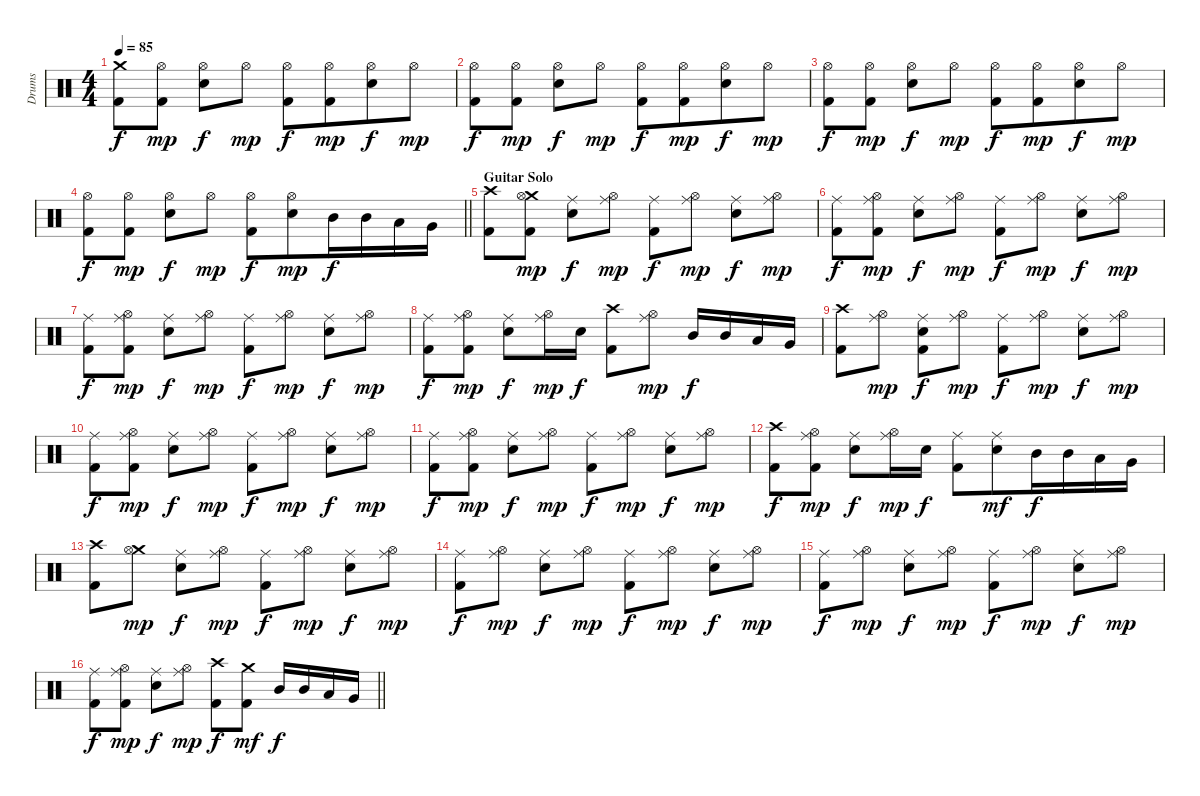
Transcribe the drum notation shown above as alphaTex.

\track ("Drums" "Drums") {instrument percussion}
\staff {score}
\articulation defaults
\ts (4 4)
\tempo 85
\clef neutral
\ks c
("Crash medium (hit)" "Kick (hit) 2").8{dy f beam merge} ("Hi-Hat (open)" "Kick (hit) 2").8{dy mp} ("Hi-Hat (open)" "Snare (hit) 2").8{dy f beam merge} "Hi-Hat (open)".8{dy mp} ("Hi-Hat (open)" "Kick (hit) 2").8{dy f beam merge} ("Hi-Hat (open)" "Kick (hit) 2").8{dy mp beam merge} ("Hi-Hat (open)" "Snare (hit) 2").8{dy f} "Hi-Hat (open)".8{dy mp} |
("Hi-Hat (open)" "Kick (hit) 2").8{dy f beam merge} ("Hi-Hat (open)" "Kick (hit) 2").8{dy mp} ("Hi-Hat (open)" "Snare (hit) 2").8{dy f beam merge} "Hi-Hat (open)".8{dy mp} ("Hi-Hat (open)" "Kick (hit) 2").8{dy f beam merge} ("Hi-Hat (open)" "Kick (hit) 2").8{dy mp beam merge} ("Hi-Hat (open)" "Snare (hit) 2").8{dy f} "Hi-Hat (open)".8{dy mp} |
("Hi-Hat (open)" "Kick (hit) 2").8{dy f beam merge} ("Hi-Hat (open)" "Kick (hit) 2").8{dy mp} ("Hi-Hat (open)" "Snare (hit) 2").8{dy f beam merge} "Hi-Hat (open)".8{dy mp} ("Hi-Hat (open)" "Kick (hit) 2").8{dy f beam merge} ("Hi-Hat (open)" "Kick (hit) 2").8{dy mp beam merge} ("Hi-Hat (open)" "Snare (hit) 2").8{dy f} "Hi-Hat (open)".8{dy mp} |
\barLineRight lightlight
("Hi-Hat (open)" "Kick (hit) 2").8{dy f beam merge} ("Hi-Hat (open)" "Kick (hit) 2").8{dy mp} ("Hi-Hat (open)" "Snare (hit) 2").8{dy f beam merge} "Hi-Hat (open)".8{dy mp} ("Hi-Hat (open)" "Kick (hit) 2").8{dy f beam merge} ("Hi-Hat (open)" "Snare (hit) 2").8{dy mp beam merge} "Mid Tom (hit)".16{dy f} "Mid Tom (hit)".16 "Low Tom (hit)".16 "Very Low Tom (hit)".16 |
\section ("" "Guitar Solo")
("Crash high (hit)" "Kick (hit) 2").8 ("Crash medium (hit)" "Hi-Hat (open)" "Kick (hit) 2").8{dy mp} ("Ride (middle)" "Snare (hit) 2").8{dy f} ("Ride (middle)" "Hi-Hat (open)").8{dy mp} ("Ride (middle)" "Kick (hit) 2").8{dy f} ("Ride (middle)" "Hi-Hat (open)").8{dy mp} ("Ride (middle)" "Snare (hit) 2").8{dy f} ("Ride (middle)" "Hi-Hat (open)").8{dy mp} |
("Ride (middle)" "Kick (hit) 2").8{dy f} ("Ride (middle)" "Hi-Hat (open)" "Kick (hit) 2").8{dy mp} ("Ride (middle)" "Snare (hit) 2").8{dy f} ("Ride (middle)" "Hi-Hat (open)").8{dy mp} ("Ride (middle)" "Kick (hit) 2").8{dy f} ("Ride (middle)" "Hi-Hat (open)").8{dy mp} ("Ride (middle)" "Snare (hit) 2").8{dy f} ("Ride (middle)" "Hi-Hat (open)").8{dy mp} |
("Ride (middle)" "Kick (hit) 2").8{dy f} ("Ride (middle)" "Hi-Hat (open)" "Kick (hit) 2").8{dy mp} ("Ride (middle)" "Snare (hit) 2").8{dy f} ("Ride (middle)" "Hi-Hat (open)").8{dy mp} ("Ride (middle)" "Kick (hit) 2").8{dy f} ("Ride (middle)" "Hi-Hat (open)").8{dy mp} ("Ride (middle)" "Snare (hit) 2").8{dy f} ("Ride (middle)" "Hi-Hat (open)").8{dy mp} |
("Ride (middle)" "Kick (hit) 2").8{dy f} ("Ride (middle)" "Hi-Hat (open)" "Kick (hit) 2").8{dy mp} ("Ride (middle)" "Snare (hit) 2").8{dy f} ("Ride (middle)" "Hi-Hat (open)").16{dy mp} "Snare (hit) 2".16{dy f} ("Crash high (hit)" "Kick (hit) 2").8 ("Ride (middle)" "Hi-Hat (open)").8{dy mp} "Mid Tom (hit)".16{dy f} "Mid Tom (hit)".16{beam merge} "Low Tom (hit)".16{beam merge} "Very Low Tom (hit)".16 |
("Crash high (hit)" "Kick (hit) 2").8 ("Ride (middle)" "Hi-Hat (open)").8{dy mp} ("Ride (middle)" "Snare (hit) 2" "Kick (hit) 2").8{dy f} ("Ride (middle)" "Hi-Hat (open)").8{dy mp} ("Ride (middle)" "Kick (hit) 2").8{dy f} ("Ride (middle)" "Hi-Hat (open)").8{dy mp} ("Ride (middle)" "Snare (hit) 2").8{dy f} ("Ride (middle)" "Hi-Hat (open)").8{dy mp} |
("Ride (middle)" "Kick (hit) 2").8{dy f} ("Ride (middle)" "Hi-Hat (open)" "Kick (hit) 2").8{dy mp} ("Ride (middle)" "Snare (hit) 2").8{dy f} ("Ride (middle)" "Hi-Hat (open)").8{dy mp} ("Ride (middle)" "Kick (hit) 2").8{dy f} ("Ride (middle)" "Hi-Hat (open)").8{dy mp} ("Ride (middle)" "Snare (hit) 2").8{dy f} ("Ride (middle)" "Hi-Hat (open)").8{dy mp} |
("Ride (middle)" "Kick (hit) 2").8{dy f} ("Ride (middle)" "Hi-Hat (open)" "Kick (hit) 2").8{dy mp} ("Ride (middle)" "Snare (hit) 2").8{dy f} ("Ride (middle)" "Hi-Hat (open)").8{dy mp} ("Ride (middle)" "Kick (hit) 2").8{dy f} ("Ride (middle)" "Hi-Hat (open)").8{dy mp} ("Ride (middle)" "Snare (hit) 2").8{dy f} ("Ride (middle)" "Hi-Hat (open)").8{dy mp} |
("Crash high (hit)" "Kick (hit) 2").8{dy f} ("Ride (middle)" "Hi-Hat (open)" "Kick (hit) 2").8{dy mp} ("Ride (middle)" "Snare (hit) 2").8{dy f} ("Ride (middle)" "Hi-Hat (open)").16{dy mp} "Snare (hit) 2".16{dy f} ("Ride (middle)" "Kick (hit) 2").8 ("Ride (middle)" "Snare (hit) 2").8{dy mf beam merge} "Mid Tom (hit)".16{dy f beam merge} "Mid Tom (hit)".16{beam merge} "Low Tom (hit)".16 "Very Low Tom (hit)".16 |
("Crash high (hit)" "Kick (hit) 2").8 ("Crash medium (hit)" "Hi-Hat (open)").8{dy mp} ("Ride (middle)" "Snare (hit) 2").8{dy f} ("Ride (middle)" "Hi-Hat (open)").8{dy mp} ("Ride (middle)" "Kick (hit) 2").8{dy f} ("Ride (middle)" "Hi-Hat (open)").8{dy mp} ("Ride (middle)" "Snare (hit) 2").8{dy f} ("Ride (middle)" "Hi-Hat (open)").8{dy mp} |
("Ride (middle)" "Kick (hit) 2").8{dy f} ("Ride (middle)" "Hi-Hat (open)").8{dy mp} ("Ride (middle)" "Snare (hit) 2").8{dy f} ("Ride (middle)" "Hi-Hat (open)").8{dy mp} ("Ride (middle)" "Kick (hit) 2").8{dy f} ("Ride (middle)" "Hi-Hat (open)").8{dy mp} ("Ride (middle)" "Snare (hit) 2").8{dy f} ("Ride (middle)" "Hi-Hat (open)").8{dy mp} |
("Ride (middle)" "Kick (hit) 2").8{dy f} ("Ride (middle)" "Hi-Hat (open)").8{dy mp} ("Ride (middle)" "Snare (hit) 2").8{dy f} ("Ride (middle)" "Hi-Hat (open)").8{dy mp} ("Ride (middle)" "Kick (hit) 2").8{dy f} ("Ride (middle)" "Hi-Hat (open)").8{dy mp} ("Ride (middle)" "Snare (hit) 2").8{dy f} ("Ride (middle)" "Hi-Hat (open)").8{dy mp} |
\barLineRight lightlight
("Ride (middle)" "Kick (hit) 2").8{dy f} ("Ride (middle)" "Hi-Hat (open)" "Kick (hit) 2").8{dy mp} ("Ride (middle)" "Snare (hit) 2").8{dy f} ("Ride (middle)" "Hi-Hat (open)").8{dy mp} ("Crash high (hit)" "Kick (hit) 2").8{dy f} ("Crash medium (hit)" "Kick (hit) 2").8{dy mf} "Mid Tom (hit)".16{dy f} "Mid Tom (hit)".16{beam merge} "Low Tom (hit)".16{beam merge} "Very Low Tom (hit)".16
